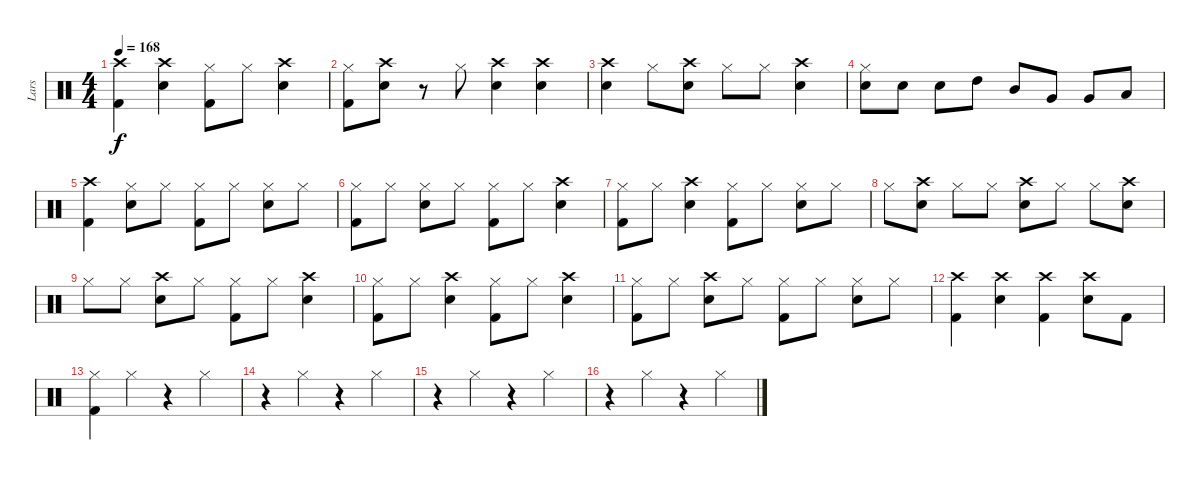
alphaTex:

\track ("Lars" "Lars") {instrument percussion}
\staff {score}
\articulation defaults
\ts (4 4)
\tempo 168
\clef neutral
\ks c
("Crash high (hit)" "Kick (hit) 2").4{dy f} ("Crash high (hit)" "Snare (hit) 2").4 ("Hi-Hat (closed)" "Kick (hit) 2").8 "Hi-Hat (closed)".8 ("Crash high (hit)" "Snare (hit) 2").4 |
("Hi-Hat (closed)" "Kick (hit) 2").8 ("Crash high (hit)" "Snare (hit) 2").8 r.8 "Hi-Hat (closed)".8 ("Crash high (hit)" "Snare (hit) 2").4 ("Crash high (hit)" "Snare (hit) 2").4 |
("Crash high (hit)" "Snare (hit) 2").4 "Hi-Hat (closed)".8 ("Crash high (hit)" "Snare (hit) 2").8 "Hi-Hat (closed)".8 "Hi-Hat (closed)".8 ("Crash high (hit)" "Snare (hit) 2").4 |
("Hi-Hat (closed)" "Snare (hit) 2").8 "Snare (hit) 2".8 "Snare (hit) 2".8 "High Tom (hit)".8 "Mid Tom (hit)".8 "Very Low Tom (hit)".8 "Very Low Tom (hit)".8 "Low Floor Tom (hit)".8 |
("Crash high (hit)" "Kick (hit) 2").4 ("Hi-Hat (closed)" "Snare (hit) 2").8 "Hi-Hat (closed)".8 ("Hi-Hat (closed)" "Kick (hit) 2").8 "Hi-Hat (closed)".8 ("Hi-Hat (closed)" "Snare (hit) 2").8 "Hi-Hat (closed)".8 |
("Hi-Hat (closed)" "Kick (hit) 2").8 "Hi-Hat (closed)".8 ("Hi-Hat (closed)" "Snare (hit) 2").8 "Hi-Hat (closed)".8 ("Hi-Hat (closed)" "Kick (hit) 2").8 "Hi-Hat (closed)".8 ("Crash high (hit)" "Snare (hit) 2").4 |
("Hi-Hat (closed)" "Kick (hit) 2").8 "Hi-Hat (closed)".8 ("Crash high (hit)" "Snare (hit) 2").4 ("Hi-Hat (closed)" "Kick (hit) 2").8 "Hi-Hat (closed)".8 ("Hi-Hat (closed)" "Snare (hit) 2").8 "Hi-Hat (closed)".8 |
"Hi-Hat (closed)".8 ("Crash high (hit)" "Snare (hit) 2").8 "Hi-Hat (closed)".8 "Hi-Hat (closed)".8 ("Crash high (hit)" "Snare (hit) 2").8 "Hi-Hat (closed)".8 "Hi-Hat (closed)".8 ("Crash high (hit)" "Snare (hit) 2").8 |
"Hi-Hat (closed)".8 "Hi-Hat (closed)".8 ("Crash high (hit)" "Snare (hit) 2").8 "Hi-Hat (closed)".8 ("Hi-Hat (closed)" "Kick (hit) 2").8 "Hi-Hat (closed)".8 ("Crash high (hit)" "Snare (hit) 2").4 |
("Hi-Hat (closed)" "Kick (hit) 2").8 "Hi-Hat (closed)".8 ("Crash high (hit)" "Snare (hit) 2").4 ("Hi-Hat (closed)" "Kick (hit) 2").8 "Hi-Hat (closed)".8 ("Crash high (hit)" "Snare (hit) 2").4 |
("Hi-Hat (closed)" "Kick (hit) 2").8 "Hi-Hat (closed)".8 ("Crash high (hit)" "Snare (hit) 2").8 "Hi-Hat (closed)".8 ("Hi-Hat (closed)" "Kick (hit) 2").8 "Hi-Hat (closed)".8 ("Hi-Hat (closed)" "Snare (hit) 2").8 "Hi-Hat (closed)".8 |
("Crash high (hit)" "Kick (hit) 2").4 ("Crash high (hit)" "Snare (hit) 2").4 ("Crash high (hit)" "Kick (hit) 2").4 ("Crash high (hit)" "Snare (hit) 2").8 "Kick (hit) 2".8 |
("Hi-Hat (closed)" "Kick (hit) 2").4 "Hi-Hat (closed)".4 r.4 "Hi-Hat (closed)".4 |
r.4 "Hi-Hat (closed)".4 r.4 "Hi-Hat (closed)".4 |
r.4 "Hi-Hat (closed)".4 r.4 "Hi-Hat (closed)".4 |
r.4 "Hi-Hat (closed)".4 r.4 "Hi-Hat (closed)".4
